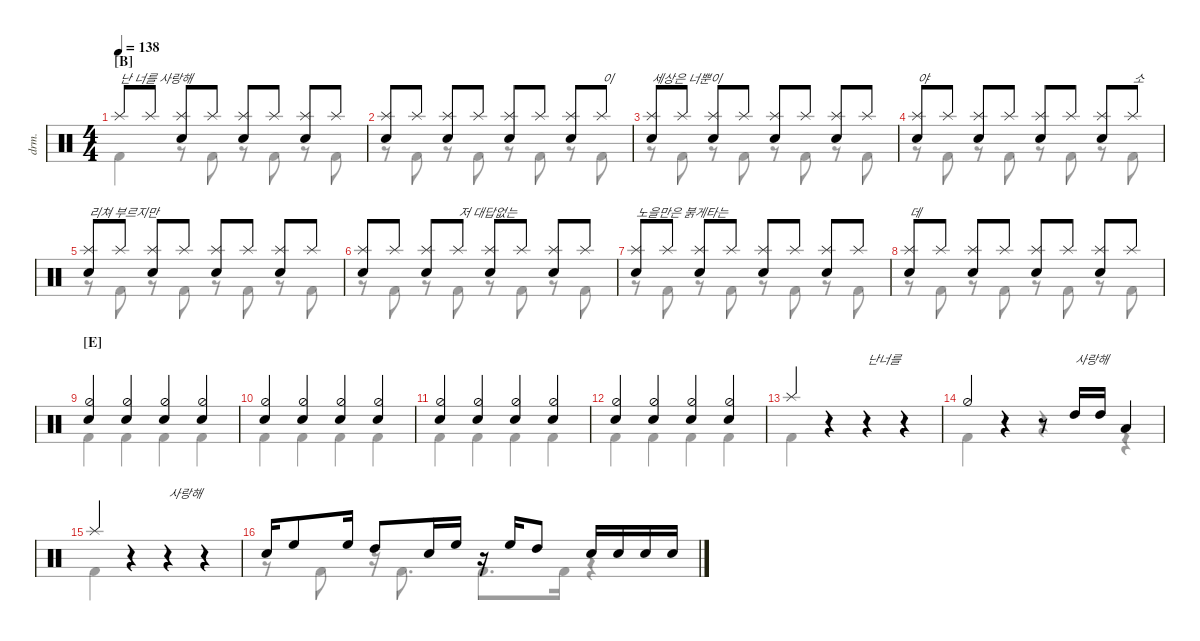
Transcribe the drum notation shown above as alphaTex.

\defaultSystemsLayout 4
\hideDynamics
\bracketExtendMode nobrackets
\track ("Drumkit" "drm.") {instrument percussion}
\staff {score}
\articulation defaults
\voice
\ts (4 4)
\section ("B" "")
\tempo 138
\clef neutral
\ks c "Splash (hit)".8{txt "난 너를 사랑해" dy mf beam Up} "Splash (hit)".8{beam Up}
("Splash (hit)" "Snare (hit) 2").8{beam Up} "Splash (hit)".8{beam Up} ("Splash (hit)" "Snare (hit) 2").8{beam Up} "Splash (hit)".8{beam Up} ("Splash (hit)" "Snare (hit) 2").8{beam Up} "Splash (hit)".8{beam Up} |
("Splash (hit)" "Snare (hit) 2").8{beam Up} "Splash (hit)".8{beam Up} ("Splash (hit)" "Snare (hit) 2").8{beam Up} "Splash (hit)".8{beam Up} ("Splash (hit)" "Snare (hit) 2").8{beam Up} "Splash (hit)".8{beam Up} ("Splash (hit)" "Snare (hit) 2").8{beam Up} "Splash (hit)".8{txt "이" beam Up} |
("Splash (hit)" "Snare (hit) 2").8{txt "세상은 너뿐이" beam Up} "Splash (hit)".8{beam Up} ("Splash (hit)" "Snare (hit) 2").8{beam Up} "Splash (hit)".8{beam Up} ("Splash (hit)" "Snare (hit) 2").8{beam Up} "Splash (hit)".8{beam Up} ("Splash (hit)" "Snare (hit) 2").8{beam Up} "Splash (hit)".8{beam Up} |
("Splash (hit)" "Snare (hit) 2").8{txt "야" beam Up} "Splash (hit)".8{beam Up} ("Splash (hit)" "Snare (hit) 2").8{beam Up} "Splash (hit)".8{beam Up} ("Splash (hit)" "Snare (hit) 2").8{beam Up} "Splash (hit)".8{beam Up} ("Splash (hit)" "Snare (hit) 2").8{beam Up} "Splash (hit)".8{txt "소" beam Up} |
("Splash (hit)" "Snare (hit) 2").8{txt "리쳐 부르지만" beam Up} "Splash (hit)".8{beam Up} ("Splash (hit)" "Snare (hit) 2").8{beam Up} "Splash (hit)".8{beam Up} ("Splash (hit)" "Snare (hit) 2").8{beam Up} "Splash (hit)".8{beam Up} ("Splash (hit)" "Snare (hit) 2").8{beam Up} "Splash (hit)".8{beam Up} |
("Splash (hit)" "Snare (hit) 2").8{beam Up} "Splash (hit)".8{beam Up} ("Splash (hit)" "Snare (hit) 2").8{beam Up} "Splash (hit)".8{txt "저 대답없는" beam Up} ("Splash (hit)" "Snare (hit) 2").8{beam Up} "Splash (hit)".8{beam Up} ("Splash (hit)" "Snare (hit) 2").8{beam Up} "Splash (hit)".8{beam Up} |
("Splash (hit)" "Snare (hit) 2").8{txt "노을만은 붉게타는" beam Up} "Splash (hit)".8{beam Up} ("Splash (hit)" "Snare (hit) 2").8{beam Up} "Splash (hit)".8{beam Up} ("Splash (hit)" "Snare (hit) 2").8{beam Up} "Splash (hit)".8{beam Up} ("Splash (hit)" "Snare (hit) 2").8{beam Up} "Splash (hit)".8{beam Up} |
("Splash (hit)" "Snare (hit) 2").8{txt "데" beam Up} "Splash (hit)".8{beam Up} ("Splash (hit)" "Snare (hit) 2").8{beam Up} "Splash (hit)".8{beam Up} ("Splash (hit)" "Snare (hit) 2").8{beam Up} "Splash (hit)".8{beam Up} ("Splash (hit)" "Snare (hit) 2").8{beam Up} "Splash (hit)".8{beam Up} |
\section ("E" "")
("Snare (hit) 2" "Hi-Hat (half)").4{beam Up} ("Snare (hit) 2" "Hi-Hat (half)").4{beam Up} ("Snare (hit) 2" "Hi-Hat (half)").4{beam Up} ("Snare (hit) 2" "Hi-Hat (half)").4{beam Up} |
("Snare (hit) 2" "Hi-Hat (half)").4{beam Up} ("Snare (hit) 2" "Hi-Hat (half)").4{beam Up} ("Snare (hit) 2" "Hi-Hat (half)").4{beam Up} ("Snare (hit) 2" "Hi-Hat (half)").4{beam Up} |
("Snare (hit) 2" "Hi-Hat (half)").4{beam Up} ("Snare (hit) 2" "Hi-Hat (half)").4{beam Up} ("Snare (hit) 2" "Hi-Hat (half)").4{beam Up} ("Snare (hit) 2" "Hi-Hat (half)").4{beam Up} |
("Snare (hit) 2" "Hi-Hat (half)").4{beam Up} ("Snare (hit) 2" "Hi-Hat (half)").4{beam Up} ("Snare (hit) 2" "Hi-Hat (half)").4{beam Up} ("Snare (hit) 2" "Hi-Hat (half)").4{beam Up} |
"Splash (hit)".4{beam Up} r.4{beam Up} r.4{txt "난너를" beam Up} r.4{beam Up} |
"Hi-Hat (half)".4{beam Up} r.4{beam Up} r.8{beam Up} "High Tom (hit)".16{txt "사랑해" beam Up} "High Tom (hit)".16{beam Up} "Low Tom (hit)".4{beam Up} |
"Splash (hit)".4{beam Up} r.4{beam Up} r.4{txt "사랑해" beam Up} r.4{beam Up} |
"Snare (hit) 2".16{beam Up} "High Floor Tom (hit)".8{beam Up} "High Floor Tom (hit)".16{beam Up} "High Tom (hit)".8{beam Up} "Snare (hit) 2".16{beam Up} "High Floor Tom (hit)".16{beam Up} r.16{beam Up} "High Floor Tom (hit)".16{beam Up} "High Tom (hit)".8{beam Up} "Snare (hit) 2".16{beam Up} "Snare (hit) 2".16{beam Up} "Snare (hit) 2".16{beam Up} "Snare (hit) 2".16{beam Up}
\voice
\clef neutral
\ottava regular
\simile none
\ks c
|
|
|
|
|
|
|
|
|
|
|
|
|
|
|
\voice
\clef neutral
\ottava regular
\simile none
\ks c "Kick (hit) 2".4{dy mf beam Down}
r.8{beam Down} "Kick (hit) 2".8{beam Down} r.8{beam Down} "Kick (hit) 2".8{beam Down} r.8{beam Down} "Kick (hit) 2".8{beam Down} |
r.8{beam Down} "Kick (hit) 2".8{beam Down} r.8{beam Down} "Kick (hit) 2".8{beam Down} r.8{beam Down} "Kick (hit) 2".8{beam Down} r.8{beam Down} "Kick (hit) 2".8{beam Down} |
r.8{beam Down} "Kick (hit) 2".8{beam Down} r.8{beam Down} "Kick (hit) 2".8{beam Down} r.8{beam Down} "Kick (hit) 2".8{beam Down} r.8{beam Down} "Kick (hit) 2".8{beam Down} |
r.8{beam Down} "Kick (hit) 2".8{beam Down} r.8{beam Down} "Kick (hit) 2".8{beam Down} r.8{beam Down} "Kick (hit) 2".8{beam Down} r.8{beam Down} "Kick (hit) 2".8{beam Down} |
r.8{beam Down} "Kick (hit) 2".8{beam Down} r.8{beam Down} "Kick (hit) 2".8{beam Down} r.8{beam Down} "Kick (hit) 2".8{beam Down} r.8{beam Down} "Kick (hit) 2".8{beam Down} |
r.8{beam Down} "Kick (hit) 2".8{beam Down} r.8{beam Down} "Kick (hit) 2".8{beam Down} r.8{beam Down} "Kick (hit) 2".8{beam Down} r.8{beam Down} "Kick (hit) 2".8{beam Down} |
r.8{beam Down} "Kick (hit) 2".8{beam Down} r.8{beam Down} "Kick (hit) 2".8{beam Down} r.8{beam Down} "Kick (hit) 2".8{beam Down} r.8{beam Down} "Kick (hit) 2".8{beam Down} |
r.8{beam Down} "Kick (hit) 2".8{beam Down} r.8{beam Down} "Kick (hit) 2".8{beam Down} r.8{beam Down} "Kick (hit) 2".8{beam Down} r.8{beam Down} "Kick (hit) 2".8{beam Down} |
"Kick (hit) 2".4{beam Down} "Kick (hit) 2".4{beam Down} "Kick (hit) 2".4{beam Down} "Kick (hit) 2".4{beam Down} |
"Kick (hit) 2".4{beam Down} "Kick (hit) 2".4{beam Down} "Kick (hit) 2".4{beam Down} "Kick (hit) 2".4{beam Down} |
"Kick (hit) 2".4{beam Down} "Kick (hit) 2".4{beam Down} "Kick (hit) 2".4{beam Down} "Kick (hit) 2".4{beam Down} |
"Kick (hit) 2".4{beam Down} "Kick (hit) 2".4{beam Down} "Kick (hit) 2".4{beam Down} "Kick (hit) 2".4{beam Down} |
"Kick (hit) 2".4{beam Down} r.4{beam Down} r.4{beam Down} r.4{beam Down} |
"Kick (hit) 2".4{beam Down} r.4{beam Down} r.4{beam Down} r.4{beam Down} |
"Kick (hit) 2".4{beam Down} r.4{beam Down} r.4{beam Down} r.4{beam Down} |
r.8{beam Down} "Kick (hit) 2".8{beam Down} r.16{beam Down} "Kick (hit) 2".8{d beam Down} "Kick (hit) 2".8{d beam Down} "Kick (hit) 2".16{beam Down} r.4{beam Down}
